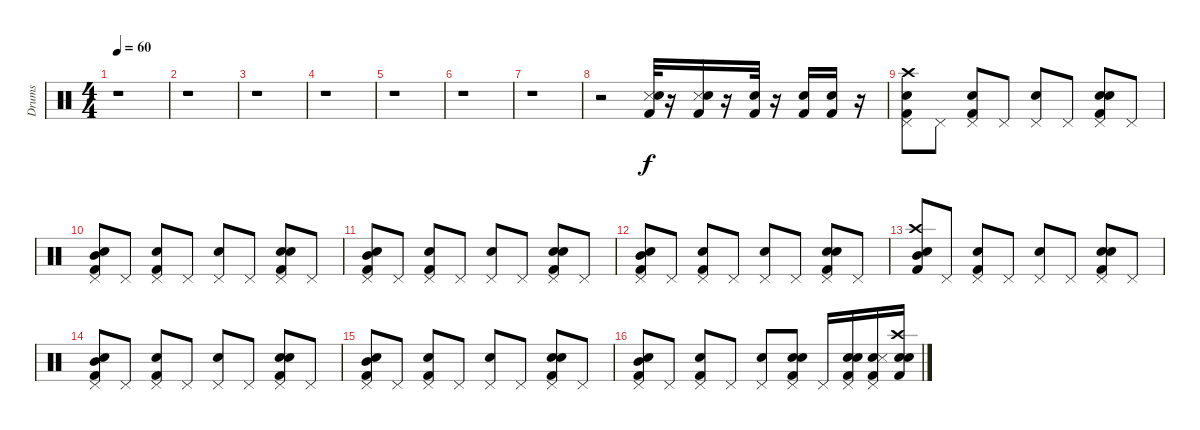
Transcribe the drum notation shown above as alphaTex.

\track ("Drums" "Drums") {instrument percussion}
\staff {score}
\articulation defaults
\ts (4 4)
\tempo 60
\clef neutral
\ks c
r.1{dy f} |
r.1 |
r.1 |
r.1 |
r.1 |
r.1 |
r.1 |
r.2 ("Kick (hit) 2" "Snare (side stick) 3" "Snare (hit) 2").32 r.16 ("Kick (hit) 2" "Snare (side stick) 3" "Snare (hit) 2").16 r.16 ("Kick (hit) 2" "Snare (hit) 2").32 r.16 ("Kick (hit) 2" "Snare (hit) 2").16 ("Kick (hit) 2" "Snare (hit) 2").16 r.16 |
("Pedal Hi-Hat (hit)" "Snare (hit) 2" "Crash high (hit)" "Kick (hit) 2").8 "Pedal Hi-Hat (hit)".8 ("Pedal Hi-Hat (hit)" "Electric Snare (hit)" "Kick (hit) 2").8 "Pedal Hi-Hat (hit)".8 ("Pedal Hi-Hat (hit)" "Snare (hit) 2").8 "Pedal Hi-Hat (hit)".8 ("Pedal Hi-Hat (hit)" "Electric Snare (hit)" "Kick (hit) 2" "Snare (hit) 2").8 "Pedal Hi-Hat (hit)".8 |
("Kick (hit) 2" "Snare (hit) 2" "Pedal Hi-Hat (hit)" "Mid Tom (hit)").8 "Pedal Hi-Hat (hit)".8 ("Pedal Hi-Hat (hit)" "Electric Snare (hit)" "Kick (hit) 2").8 "Pedal Hi-Hat (hit)".8 ("Pedal Hi-Hat (hit)" "Snare (hit) 2").8 "Pedal Hi-Hat (hit)".8 ("Pedal Hi-Hat (hit)" "Electric Snare (hit)" "Kick (hit) 2" "Snare (hit) 2").8 "Pedal Hi-Hat (hit)".8 |
("Kick (hit) 2" "Snare (hit) 2" "Pedal Hi-Hat (hit)" "Mid Tom (hit)").8 "Pedal Hi-Hat (hit)".8 ("Pedal Hi-Hat (hit)" "Electric Snare (hit)" "Kick (hit) 2").8 "Pedal Hi-Hat (hit)".8 ("Pedal Hi-Hat (hit)" "Snare (hit) 2").8 "Pedal Hi-Hat (hit)".8 ("Pedal Hi-Hat (hit)" "Electric Snare (hit)" "Kick (hit) 2" "Snare (hit) 2").8 "Pedal Hi-Hat (hit)".8 |
("Kick (hit) 2" "Snare (hit) 2" "Pedal Hi-Hat (hit)" "Mid Tom (hit)").8 "Pedal Hi-Hat (hit)".8 ("Pedal Hi-Hat (hit)" "Electric Snare (hit)" "Kick (hit) 2").8 "Pedal Hi-Hat (hit)".8 ("Pedal Hi-Hat (hit)" "Snare (hit) 2").8 "Pedal Hi-Hat (hit)".8 ("Pedal Hi-Hat (hit)" "Electric Snare (hit)" "Kick (hit) 2" "Snare (hit) 2").8 "Pedal Hi-Hat (hit)".8 |
("Kick (hit) 2" "Snare (hit) 2" "Crash high (hit)" "Mid Tom (hit)").8 "Pedal Hi-Hat (hit)".8 ("Pedal Hi-Hat (hit)" "Electric Snare (hit)" "Kick (hit) 2").8 "Pedal Hi-Hat (hit)".8 ("Pedal Hi-Hat (hit)" "Snare (hit) 2").8 "Pedal Hi-Hat (hit)".8 ("Pedal Hi-Hat (hit)" "Electric Snare (hit)" "Kick (hit) 2" "Snare (hit) 2").8 "Pedal Hi-Hat (hit)".8 |
("Kick (hit) 2" "Snare (hit) 2" "Pedal Hi-Hat (hit)" "Mid Tom (hit)").8 "Pedal Hi-Hat (hit)".8 ("Pedal Hi-Hat (hit)" "Electric Snare (hit)" "Kick (hit) 2").8 "Pedal Hi-Hat (hit)".8 ("Pedal Hi-Hat (hit)" "Snare (hit) 2").8 "Pedal Hi-Hat (hit)".8 ("Pedal Hi-Hat (hit)" "Electric Snare (hit)" "Kick (hit) 2" "Snare (hit) 2").8 "Pedal Hi-Hat (hit)".8 |
("Kick (hit) 2" "Snare (hit) 2" "Pedal Hi-Hat (hit)" "Mid Tom (hit)").8 "Pedal Hi-Hat (hit)".8 ("Pedal Hi-Hat (hit)" "Electric Snare (hit)" "Kick (hit) 2").8 "Pedal Hi-Hat (hit)".8 ("Pedal Hi-Hat (hit)" "Snare (hit) 2").8 "Pedal Hi-Hat (hit)".8 ("Pedal Hi-Hat (hit)" "Electric Snare (hit)" "Kick (hit) 2" "Snare (hit) 2").8 "Pedal Hi-Hat (hit)".8 |
("Kick (hit) 2" "Snare (hit) 2" "Pedal Hi-Hat (hit)" "Mid Tom (hit)").8 "Pedal Hi-Hat (hit)".8 ("Pedal Hi-Hat (hit)" "Electric Snare (hit)" "Kick (hit) 2").8 "Pedal Hi-Hat (hit)".8 ("Pedal Hi-Hat (hit)" "Snare (hit) 2").8 ("Pedal Hi-Hat (hit)" "Electric Snare (hit)" "Kick (hit) 2" "Snare (hit) 2").8 "Pedal Hi-Hat (hit)".16 ("Pedal Hi-Hat (hit)" "Electric Snare (hit)" "Kick (hit) 2" "Snare (hit) 2").16 ("Pedal Hi-Hat (hit)" "Electric Snare (hit)" "Kick (hit) 2" "Snare (side stick) 3").16 ("Crash high (hit)" "Electric Snare (hit)" "Kick (hit) 2" "Snare (hit) 2").16
